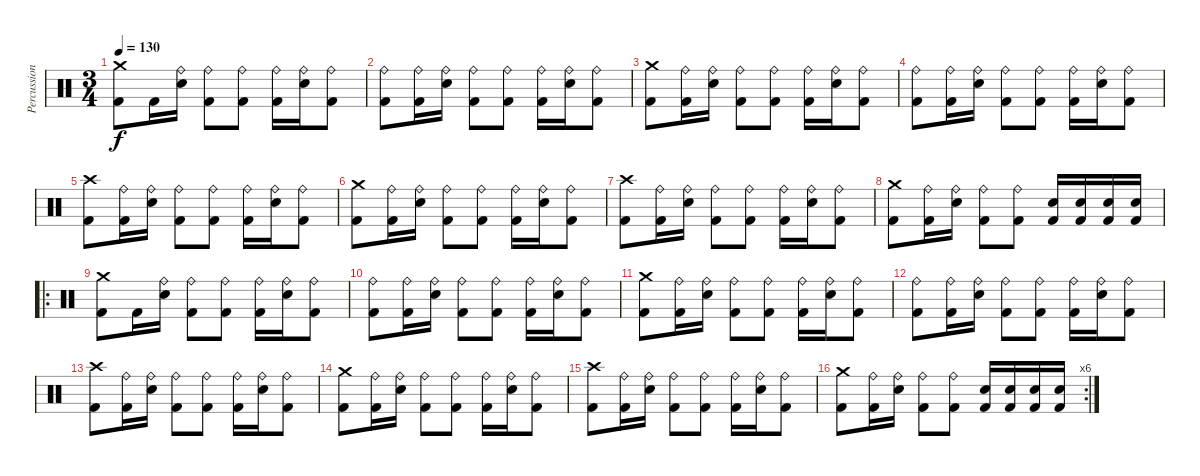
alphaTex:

\track ("Percussion" "Percussion") {instrument percussion}
\staff {score}
\articulation defaults
\ts (3 4)
\tempo 130
\clef neutral
\ks c
("Crash medium (hit)" "Kick (hit) 2").8{dy f} "Kick (hit) 2".16 ("Ride (bell)" "Electric Snare (hit)").16 ("Ride (bell)" "Kick (hit) 2").8 ("Ride (bell)" "Kick (hit) 2").8 ("Ride (bell)" "Kick (hit) 2").16 ("Ride (bell)" "Electric Snare (hit)").16 ("Ride (bell)" "Kick (hit) 2").8 |
("Ride (bell)" "Kick (hit) 2").8 ("Ride (bell)" "Kick (hit) 2").16 ("Ride (bell)" "Electric Snare (hit)").16 ("Ride (bell)" "Kick (hit) 2").8 ("Ride (bell)" "Kick (hit) 2").8 ("Ride (bell)" "Kick (hit) 2").16 ("Ride (bell)" "Electric Snare (hit)").16 ("Ride (bell)" "Kick (hit) 2").8 |
("Crash medium (hit)" "Kick (hit) 2").8 ("Ride (bell)" "Kick (hit) 2").16 ("Ride (bell)" "Electric Snare (hit)").16 ("Ride (bell)" "Kick (hit) 2").8 ("Ride (bell)" "Kick (hit) 2").8 ("Ride (bell)" "Kick (hit) 2").16 ("Ride (bell)" "Electric Snare (hit)").16 ("Ride (bell)" "Kick (hit) 2").8 |
("Ride (bell)" "Kick (hit) 2").8 ("Ride (bell)" "Kick (hit) 2").16 ("Ride (bell)" "Electric Snare (hit)").16 ("Ride (bell)" "Kick (hit) 2").8 ("Ride (bell)" "Kick (hit) 2").8 ("Ride (bell)" "Kick (hit) 2").16 ("Ride (bell)" "Electric Snare (hit)").16 ("Ride (bell)" "Kick (hit) 2").8 |
("Crash high (hit)" "Kick (hit) 2").8 ("Ride (bell)" "Kick (hit) 2").16 ("Ride (bell)" "Electric Snare (hit)").16 ("Ride (bell)" "Kick (hit) 2").8 ("Ride (bell)" "Kick (hit) 2").8 ("Ride (bell)" "Kick (hit) 2").16 ("Ride (bell)" "Electric Snare (hit)").16 ("Ride (bell)" "Kick (hit) 2").8 |
("Crash medium (hit)" "Kick (hit) 2").8 ("Ride (bell)" "Kick (hit) 2").16 ("Ride (bell)" "Electric Snare (hit)").16 ("Ride (bell)" "Kick (hit) 2").8 ("Ride (bell)" "Kick (hit) 2").8 ("Ride (bell)" "Kick (hit) 2").16 ("Ride (bell)" "Electric Snare (hit)").16 ("Ride (bell)" "Kick (hit) 2").8 |
("Crash high (hit)" "Kick (hit) 2").8 ("Ride (bell)" "Kick (hit) 2").16 ("Ride (bell)" "Electric Snare (hit)").16 ("Ride (bell)" "Kick (hit) 2").8 ("Ride (bell)" "Kick (hit) 2").8 ("Ride (bell)" "Kick (hit) 2").16 ("Ride (bell)" "Electric Snare (hit)").16 ("Ride (bell)" "Kick (hit) 2").8 |
("Crash medium (hit)" "Kick (hit) 2").8 ("Ride (bell)" "Kick (hit) 2").16 ("Ride (bell)" "Electric Snare (hit)").16 ("Ride (bell)" "Kick (hit) 2").8 ("Ride (bell)" "Kick (hit) 2").8 ("Electric Snare (hit)" "Kick (hit) 2").16 ("Electric Snare (hit)" "Kick (hit) 2").16 ("Electric Snare (hit)" "Kick (hit) 2").16 ("Electric Snare (hit)" "Kick (hit) 2").16 |
\ro
("Crash medium (hit)" "Kick (hit) 2").8 "Kick (hit) 2".16 ("Ride (bell)" "Electric Snare (hit)").16 ("Ride (bell)" "Kick (hit) 2").8 ("Ride (bell)" "Kick (hit) 2").8 ("Ride (bell)" "Kick (hit) 2").16 ("Ride (bell)" "Electric Snare (hit)").16 ("Ride (bell)" "Kick (hit) 2").8 |
("Ride (bell)" "Kick (hit) 2").8 ("Ride (bell)" "Kick (hit) 2").16 ("Ride (bell)" "Electric Snare (hit)").16 ("Ride (bell)" "Kick (hit) 2").8 ("Ride (bell)" "Kick (hit) 2").8 ("Ride (bell)" "Kick (hit) 2").16 ("Ride (bell)" "Electric Snare (hit)").16 ("Ride (bell)" "Kick (hit) 2").8 |
("Crash medium (hit)" "Kick (hit) 2").8 ("Ride (bell)" "Kick (hit) 2").16 ("Ride (bell)" "Electric Snare (hit)").16 ("Ride (bell)" "Kick (hit) 2").8 ("Ride (bell)" "Kick (hit) 2").8 ("Ride (bell)" "Kick (hit) 2").16 ("Ride (bell)" "Electric Snare (hit)").16 ("Ride (bell)" "Kick (hit) 2").8 |
("Ride (bell)" "Kick (hit) 2").8 ("Ride (bell)" "Kick (hit) 2").16 ("Ride (bell)" "Electric Snare (hit)").16 ("Ride (bell)" "Kick (hit) 2").8 ("Ride (bell)" "Kick (hit) 2").8 ("Ride (bell)" "Kick (hit) 2").16 ("Ride (bell)" "Electric Snare (hit)").16 ("Ride (bell)" "Kick (hit) 2").8 |
("Crash high (hit)" "Kick (hit) 2").8 ("Ride (bell)" "Kick (hit) 2").16 ("Ride (bell)" "Electric Snare (hit)").16 ("Ride (bell)" "Kick (hit) 2").8 ("Ride (bell)" "Kick (hit) 2").8 ("Ride (bell)" "Kick (hit) 2").16 ("Ride (bell)" "Electric Snare (hit)").16 ("Ride (bell)" "Kick (hit) 2").8 |
("Crash medium (hit)" "Kick (hit) 2").8 ("Ride (bell)" "Kick (hit) 2").16 ("Ride (bell)" "Electric Snare (hit)").16 ("Ride (bell)" "Kick (hit) 2").8 ("Ride (bell)" "Kick (hit) 2").8 ("Ride (bell)" "Kick (hit) 2").16 ("Ride (bell)" "Electric Snare (hit)").16 ("Ride (bell)" "Kick (hit) 2").8 |
("Crash high (hit)" "Kick (hit) 2").8 ("Ride (bell)" "Kick (hit) 2").16 ("Ride (bell)" "Electric Snare (hit)").16 ("Ride (bell)" "Kick (hit) 2").8 ("Ride (bell)" "Kick (hit) 2").8 ("Ride (bell)" "Kick (hit) 2").16 ("Ride (bell)" "Electric Snare (hit)").16 ("Ride (bell)" "Kick (hit) 2").8 |
\rc 6
("Crash medium (hit)" "Kick (hit) 2").8 ("Ride (bell)" "Kick (hit) 2").16 ("Ride (bell)" "Electric Snare (hit)").16 ("Ride (bell)" "Kick (hit) 2").8 ("Ride (bell)" "Kick (hit) 2").8 ("Electric Snare (hit)" "Kick (hit) 2").16 ("Electric Snare (hit)" "Kick (hit) 2").16 ("Electric Snare (hit)" "Kick (hit) 2").16 ("Electric Snare (hit)" "Kick (hit) 2").16
